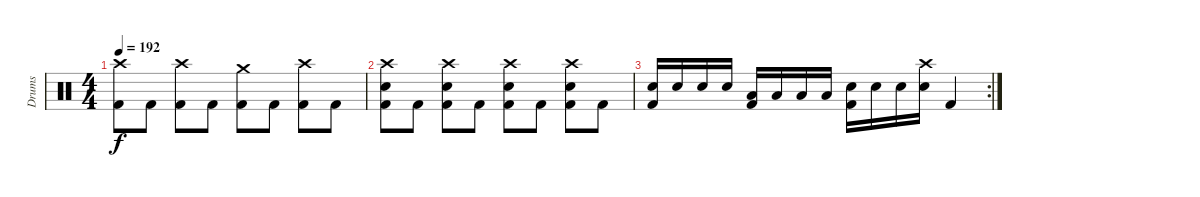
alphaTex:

\track ("Drums" "Drums") {instrument percussion}
\staff {score}
\articulation defaults
\ts (4 4)
\tempo 192
\clef neutral
\ks c
("Crash high (hit)" "Kick (hit) 2").8{dy f} "Kick (hit) 2".8 ("Crash high (hit)" "Kick (hit) 2").8 "Kick (hit) 2".8 ("Crash medium (hit)" "Kick (hit) 2").8 "Kick (hit) 2".8 ("Crash high (hit)" "Kick (hit) 2").8 "Kick (hit) 2".8 |
("Crash high (hit)" "Snare (hit) 2" "Kick (hit) 2").8 "Kick (hit) 2".8 ("Crash high (hit)" "Snare (hit) 2" "Kick (hit) 2").8 "Kick (hit) 2".8 ("Crash high (hit)" "Snare (hit) 2" "Kick (hit) 2").8 "Kick (hit) 2".8 ("Crash high (hit)" "Snare (hit) 2" "Kick (hit) 2").8 "Kick (hit) 2".8 |
\rc 2
("Electric Snare (hit)" "Kick (hit) 2").16 "Electric Snare (hit)".16 "Electric Snare (hit)".16 "Electric Snare (hit)".16 ("Low Floor Tom (hit)" "Kick (hit) 2").16 "Low Floor Tom (hit)".16 "Low Floor Tom (hit)".16 "Low Floor Tom (hit)".16 ("Snare (hit) 2" "Kick (hit) 2").16 "Snare (hit) 2".16 "Snare (hit) 2".16 ("Crash high (hit)" "Snare (hit) 2").16 "Kick (hit) 2".4
